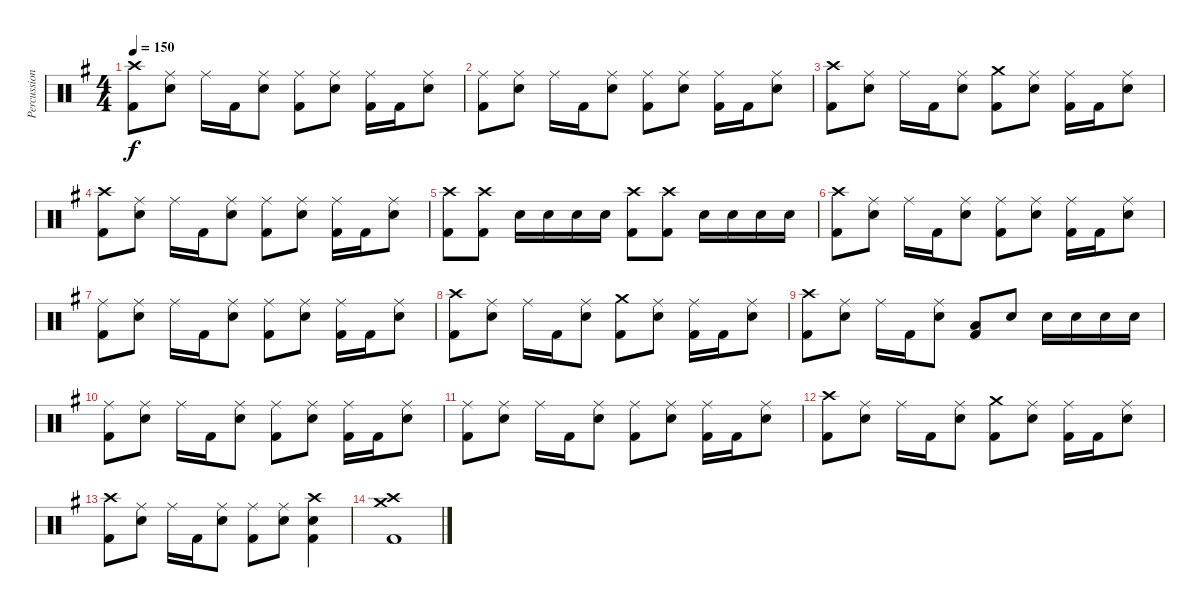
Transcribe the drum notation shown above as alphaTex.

\track ("Percussion" "Percussion") {instrument percussion}
\staff {score}
\articulation defaults
\ts (4 4)
\tempo 150
\clef neutral
\ks g
("Crash high (hit)" "Kick (hit) 2").8{dy f} ("Ride (middle)" "Electric Snare (hit)").8 "Ride (middle)".16 "Kick (hit) 2".16 ("Ride (middle)" "Electric Snare (hit)").8 ("Ride (middle)" "Kick (hit) 2").8 ("Ride (middle)" "Electric Snare (hit)").8 ("Ride (middle)" "Kick (hit) 2").16 "Kick (hit) 2".16 ("Ride (middle)" "Electric Snare (hit)").8 |
("Ride (middle)" "Kick (hit) 2").8 ("Ride (middle)" "Electric Snare (hit)").8 "Ride (middle)".16 "Kick (hit) 2".16 ("Ride (middle)" "Electric Snare (hit)").8 ("Ride (middle)" "Kick (hit) 2").8 ("Ride (middle)" "Electric Snare (hit)").8 ("Ride (middle)" "Kick (hit) 2").16 "Kick (hit) 2".16 ("Ride (middle)" "Electric Snare (hit)").8 |
("Crash high (hit)" "Kick (hit) 2").8 ("Ride (middle)" "Electric Snare (hit)").8 "Ride (middle)".16 "Kick (hit) 2".16 ("Ride (middle)" "Electric Snare (hit)").8 ("Crash medium (hit)" "Kick (hit) 2").8 ("Ride (middle)" "Electric Snare (hit)").8 ("Ride (middle)" "Kick (hit) 2").16 "Kick (hit) 2".16 ("Ride (middle)" "Electric Snare (hit)").8 |
("Crash high (hit)" "Kick (hit) 2").8 ("Ride (middle)" "Electric Snare (hit)").8 "Ride (middle)".16 "Kick (hit) 2".16 ("Ride (middle)" "Electric Snare (hit)").8 ("Ride (middle)" "Kick (hit) 2").8 ("Ride (middle)" "Electric Snare (hit)").8 ("Ride (middle)" "Kick (hit) 2").16 "Kick (hit) 2".16 ("Ride (middle)" "Electric Snare (hit)").8 |
("Crash high (hit)" "Kick (hit) 2").8 ("Crash high (hit)" "Kick (hit) 2").8 "Electric Snare (hit)".16 "Electric Snare (hit)".16 "Electric Snare (hit)".16 "Electric Snare (hit)".16 ("Crash high (hit)" "Kick (hit) 2").8 ("Crash high (hit)" "Kick (hit) 2").8 "Electric Snare (hit)".16 "Electric Snare (hit)".16 "Electric Snare (hit)".16 "Electric Snare (hit)".16 |
("Crash high (hit)" "Kick (hit) 2").8 ("Ride (middle)" "Electric Snare (hit)").8 "Ride (middle)".16 "Kick (hit) 2".16 ("Ride (middle)" "Electric Snare (hit)").8 ("Ride (middle)" "Kick (hit) 2").8 ("Ride (middle)" "Electric Snare (hit)").8 ("Ride (middle)" "Kick (hit) 2").16 "Kick (hit) 2".16 ("Ride (middle)" "Electric Snare (hit)").8 |
("Ride (middle)" "Kick (hit) 2").8 ("Ride (middle)" "Electric Snare (hit)").8 "Ride (middle)".16 "Kick (hit) 2".16 ("Ride (middle)" "Electric Snare (hit)").8 ("Ride (middle)" "Kick (hit) 2").8 ("Ride (middle)" "Electric Snare (hit)").8 ("Ride (middle)" "Kick (hit) 2").16 "Kick (hit) 2".16 ("Ride (middle)" "Electric Snare (hit)").8 |
("Crash high (hit)" "Kick (hit) 2").8 ("Ride (middle)" "Electric Snare (hit)").8 "Ride (middle)".16 "Kick (hit) 2".16 ("Ride (middle)" "Electric Snare (hit)").8 ("Crash medium (hit)" "Kick (hit) 2").8 ("Ride (middle)" "Electric Snare (hit)").8 ("Ride (middle)" "Kick (hit) 2").16 "Kick (hit) 2".16 ("Ride (middle)" "Electric Snare (hit)").8 |
("Crash high (hit)" "Kick (hit) 2").8 ("Ride (middle)" "Electric Snare (hit)").8 "Ride (middle)".16 "Kick (hit) 2".16 ("Ride (middle)" "Electric Snare (hit)").8 ("Low Tom (hit)" "Kick (hit) 2").8 "Electric Snare (hit)".8 "Electric Snare (hit)".16 "Electric Snare (hit)".16 "Electric Snare (hit)".16 "Electric Snare (hit)".16 |
("Ride (middle)" "Kick (hit) 2").8 ("Ride (middle)" "Electric Snare (hit)").8 "Ride (middle)".16 "Kick (hit) 2".16 ("Ride (middle)" "Electric Snare (hit)").8 ("Ride (middle)" "Kick (hit) 2").8 ("Ride (middle)" "Electric Snare (hit)").8 ("Ride (middle)" "Kick (hit) 2").16 "Kick (hit) 2".16 ("Ride (middle)" "Electric Snare (hit)").8 |
("Ride (middle)" "Kick (hit) 2").8 ("Ride (middle)" "Electric Snare (hit)").8 "Ride (middle)".16 "Kick (hit) 2".16 ("Ride (middle)" "Electric Snare (hit)").8 ("Ride (middle)" "Kick (hit) 2").8 ("Ride (middle)" "Electric Snare (hit)").8 ("Ride (middle)" "Kick (hit) 2").16 "Kick (hit) 2".16 ("Ride (middle)" "Electric Snare (hit)").8 |
("Crash high (hit)" "Kick (hit) 2").8 ("Ride (middle)" "Electric Snare (hit)").8 "Ride (middle)".16 "Kick (hit) 2".16 ("Ride (middle)" "Electric Snare (hit)").8 ("Crash medium (hit)" "Kick (hit) 2").8 ("Ride (middle)" "Electric Snare (hit)").8 ("Ride (middle)" "Kick (hit) 2").16 "Kick (hit) 2".16 ("Ride (middle)" "Electric Snare (hit)").8 |
("Crash high (hit)" "Kick (hit) 2").8 ("Ride (middle)" "Electric Snare (hit)").8 "Ride (middle)".16 "Kick (hit) 2".16 ("Ride (middle)" "Electric Snare (hit)").8 ("Ride (middle)" "Kick (hit) 2").8 ("Ride (middle)" "Electric Snare (hit)").8 ("Crash high (hit)" "Electric Snare (hit)" "Kick (hit) 2").4 |
("Crash high (hit)" "Crash medium (hit)" "Kick (hit) 2").1
